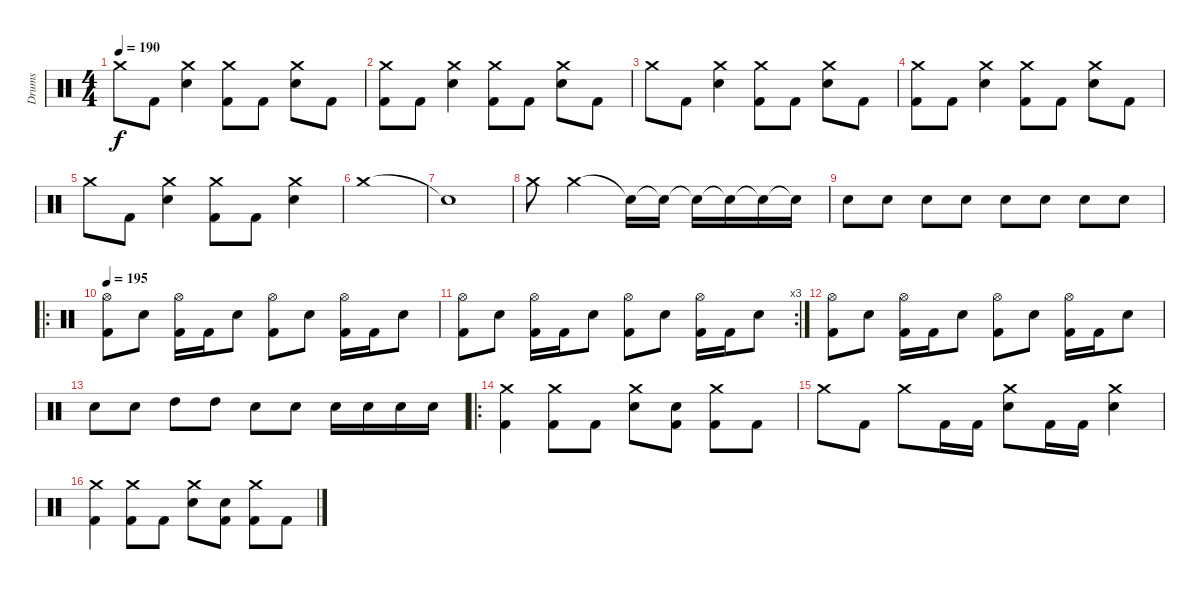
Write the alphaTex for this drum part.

\track ("Drums" "Drums") {instrument percussion}
\staff {score}
\articulation defaults
\ts (4 4)
\tempo 190
\clef neutral
\ks c "Crash medium (hit)".8{dy f} "Kick (hit) 2".8
("Crash medium (hit)" "Electric Snare (hit)").4 ("Crash medium (hit)" "Kick (hit) 2").8 "Kick (hit) 2".8 ("Crash medium (hit)" "Electric Snare (hit)").8 "Kick (hit) 2".8 |
("Crash medium (hit)" "Kick (hit) 2").8 "Kick (hit) 2".8 ("Crash medium (hit)" "Electric Snare (hit)").4 ("Crash medium (hit)" "Kick (hit) 2").8 "Kick (hit) 2".8 ("Crash medium (hit)" "Electric Snare (hit)").8 "Kick (hit) 2".8 |
"Crash medium (hit)".8 "Kick (hit) 2".8 ("Crash medium (hit)" "Electric Snare (hit)").4 ("Crash medium (hit)" "Kick (hit) 2").8 "Kick (hit) 2".8 ("Crash medium (hit)" "Electric Snare (hit)").8 "Kick (hit) 2".8 |
("Crash medium (hit)" "Kick (hit) 2").8 "Kick (hit) 2".8 ("Crash medium (hit)" "Electric Snare (hit)").4 ("Crash medium (hit)" "Kick (hit) 2").8 "Kick (hit) 2".8 ("Crash medium (hit)" "Electric Snare (hit)").8 "Kick (hit) 2".8 |
"Crash medium (hit)".8 "Kick (hit) 2".8 ("Crash medium (hit)" "Electric Snare (hit)").4 ("Crash medium (hit)" "Kick (hit) 2").8 "Kick (hit) 2".8 ("Crash medium (hit)" "Electric Snare (hit)").4 |
"Crash medium (hit)".1 |
"Snare (hit)"{t}.1 |
"Crash medium (hit)".8 "Crash medium (hit)".2 "Snare (hit)"{t}.16 "Snare (hit)"{t}.16 "Snare (hit)"{t}.16 "Snare (hit)"{t}.16 "Snare (hit)"{t}.16 "Snare (hit)"{t}.16 |
"Electric Snare (hit)".8 "Electric Snare (hit)".8 "Electric Snare (hit)".8 "Electric Snare (hit)".8 "Electric Snare (hit)".8 "Electric Snare (hit)".8 "Electric Snare (hit)".8 "Electric Snare (hit)".8 |
\ro
\tempo 200
\tempo 195
("Hi-Hat (open)" "Kick (hit) 2").8 "Electric Snare (hit)".8 ("Hi-Hat (open)" "Kick (hit) 2").16 "Kick (hit) 2".16 "Electric Snare (hit)".8 ("Hi-Hat (open)" "Kick (hit) 2").8 "Electric Snare (hit)".8 ("Hi-Hat (open)" "Kick (hit) 2").16 "Kick (hit) 2".16 "Electric Snare (hit)".8 |
\rc 3
("Hi-Hat (open)" "Kick (hit) 2").8 "Electric Snare (hit)".8 ("Hi-Hat (open)" "Kick (hit) 2").16 "Kick (hit) 2".16 "Electric Snare (hit)".8 ("Hi-Hat (open)" "Kick (hit) 2").8 "Electric Snare (hit)".8 ("Hi-Hat (open)" "Kick (hit) 2").16 "Kick (hit) 2".16 "Electric Snare (hit)".8 |
("Hi-Hat (open)" "Kick (hit) 2").8 "Electric Snare (hit)".8 ("Hi-Hat (open)" "Kick (hit) 2").16 "Kick (hit) 2".16 "Electric Snare (hit)".8 ("Hi-Hat (open)" "Kick (hit) 2").8 "Electric Snare (hit)".8 ("Hi-Hat (open)" "Kick (hit) 2").16 "Kick (hit) 2".16 "Electric Snare (hit)".8 |
"Electric Snare (hit)".8 "Electric Snare (hit)".8 "High Tom (hit)".8 "High Tom (hit)".8 "Electric Snare (hit)".8 "Electric Snare (hit)".8 "Electric Snare (hit)".16 "Electric Snare (hit)".16 "Electric Snare (hit)".16 "Electric Snare (hit)".16 |
\ro
("Crash medium (hit)" "Kick (hit) 2").4 ("Crash medium (hit)" "Kick (hit) 2").8 "Kick (hit) 2".8 ("Crash medium (hit)" "Electric Snare (hit)").8 ("Electric Snare (hit)" "Kick (hit) 2").8 ("Crash medium (hit)" "Kick (hit) 2").8 "Kick (hit) 2".8 |
"Crash medium (hit)".8 "Kick (hit) 2".8 "Crash medium (hit)".8 "Kick (hit) 2".16 "Kick (hit) 2".16 ("Crash medium (hit)" "Electric Snare (hit)").8 "Kick (hit) 2".16 "Kick (hit) 2".16 ("Crash medium (hit)" "Electric Snare (hit)").4 |
("Crash medium (hit)" "Kick (hit) 2").4 ("Crash medium (hit)" "Kick (hit) 2").8 "Kick (hit) 2".8 ("Crash medium (hit)" "Electric Snare (hit)").8 ("Electric Snare (hit)" "Kick (hit) 2").8 ("Crash medium (hit)" "Kick (hit) 2").8 "Kick (hit) 2".8
